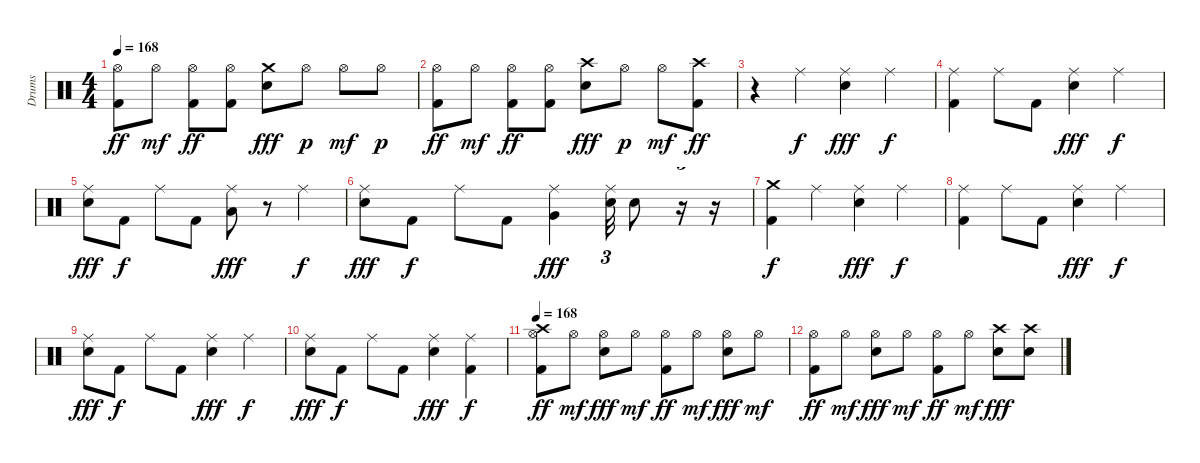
\track ("Drums" "Drums") {instrument percussion}
\staff {score}
\articulation defaults
\ts (4 4)
\tempo 168
\clef neutral
\ks c
("Hi-Hat (open)" "Kick (hit) 2").8{dy ff} "Hi-Hat (open)".8{dy mf} ("Hi-Hat (open)" "Kick (hit) 2").8{dy ff} ("Hi-Hat (open)" "Kick (hit) 2").8 ("Snare (hit) 2" "Crash medium (hit)").8{dy fff} "Hi-Hat (open)".8{dy p} "Hi-Hat (open)".8{dy mf} "Hi-Hat (open)".8{dy p} |
("Hi-Hat (open)" "Kick (hit) 2").8{dy ff} "Hi-Hat (open)".8{dy mf} ("Hi-Hat (open)" "Kick (hit) 2").8{dy ff} ("Hi-Hat (open)" "Kick (hit) 2").8 ("Snare (hit) 2" "Crash high (hit)").8{dy fff} "Hi-Hat (open)".8{dy p} "Hi-Hat (open)".8{dy mf} ("Kick (hit) 2" "Crash high (hit)").8{dy ff} |
r.4 "Ride (middle)".4{dy f} ("Snare (hit) 2" "Ride (middle)").4{dy fff} "Ride (middle)".4{dy f} |
("Kick (hit) 2" "Ride (middle)").4 "Ride (middle)".8 "Kick (hit) 2".8 ("Snare (hit) 2" "Ride (middle)").4{dy fff} "Ride (middle)".4{dy f} |
("Snare (hit) 2" "Ride (middle)").8{dy fff} "Kick (hit) 2".8{dy f} "Ride (middle)".8 "Kick (hit) 2".8 ("Low Tom (hit)" "Ride (middle)").8{dy fff} r.8 "Ride (middle)".4{dy f} |
("Snare (hit) 2" "Ride (middle)").8{dy fff} "Kick (hit) 2".8{dy f} "Ride (middle)".8 "Kick (hit) 2".8 ("Very Low Tom (hit)" "Ride (middle)").4{dy fff} ("Snare (hit) 2" "Ride (middle)").32{tu (3 2)} "Snare (hit) 2".8 r.16{tu (3 2)} r.16 |
("Kick (hit) 2" "Crash medium (hit)").4{dy f} "Ride (middle)".4 ("Snare (hit) 2" "Ride (middle)").4{dy fff} "Ride (middle)".4{dy f} |
("Kick (hit) 2" "Ride (middle)").4 "Ride (middle)".8 "Kick (hit) 2".8 ("Snare (hit) 2" "Ride (middle)").4{dy fff} "Ride (middle)".4{dy f} |
("Snare (hit) 2" "Ride (middle)").8{dy fff} "Kick (hit) 2".8{dy f} "Ride (middle)".8 "Kick (hit) 2".8 ("Snare (hit) 2" "Ride (middle)").4{dy fff} "Ride (middle)".4{dy f} |
("Snare (hit) 2" "Ride (middle)").8{dy fff} "Kick (hit) 2".8{dy f} "Ride (middle)".8 "Kick (hit) 2".8 ("Snare (hit) 2" "Ride (middle)").4{dy fff} ("Kick (hit) 2" "Ride (middle)").4{dy f} |
\tempo 168
("Hi-Hat (open)" "Kick (hit) 2" "Crash high (hit)").8{dy ff} "Hi-Hat (open)".8{dy mf} ("Hi-Hat (open)" "Snare (hit) 2").8{dy fff} "Hi-Hat (open)".8{dy mf} ("Hi-Hat (open)" "Kick (hit) 2").8{dy ff} "Hi-Hat (open)".8{dy mf} ("Hi-Hat (open)" "Snare (hit) 2").8{dy fff} "Hi-Hat (open)".8{dy mf} |
("Hi-Hat (open)" "Kick (hit) 2").8{dy ff} "Hi-Hat (open)".8{dy mf} ("Hi-Hat (open)" "Snare (hit) 2").8{dy fff} "Hi-Hat (open)".8{dy mf} ("Hi-Hat (open)" "Kick (hit) 2").8{dy ff} "Hi-Hat (open)".8{dy mf} ("Snare (hit) 2" "Crash high (hit)").8{dy fff} ("Snare (hit) 2" "Crash high (hit)").8
